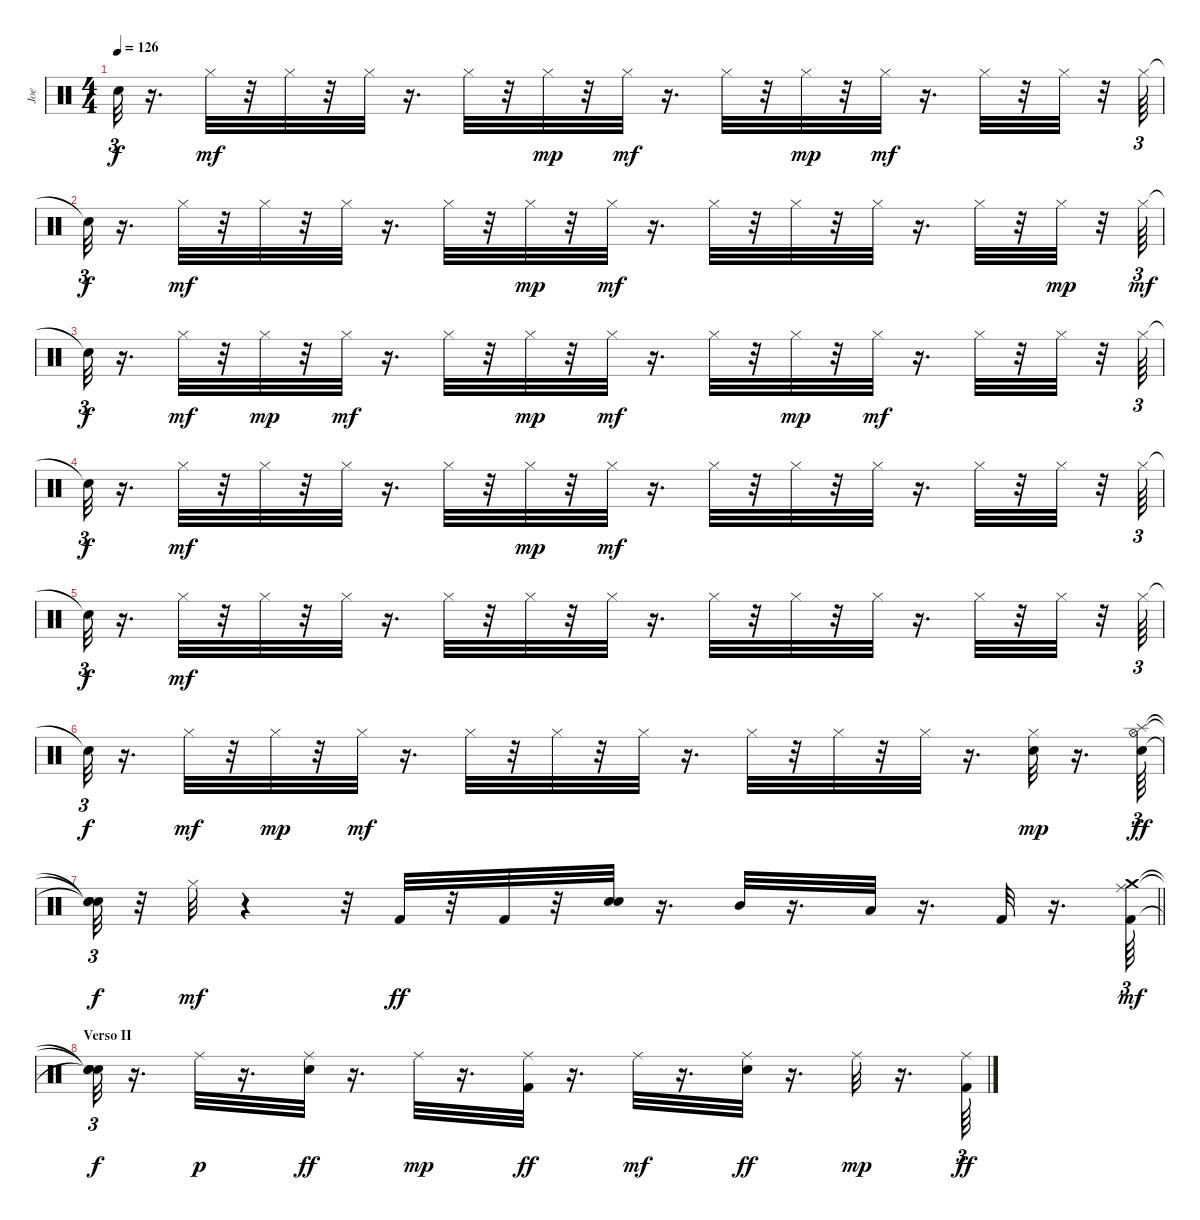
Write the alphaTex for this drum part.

\track ("Joe" "Joe") {instrument percussion}
\staff {score}
\articulation defaults
\ts (4 4)
\tempo 126
\clef neutral
\ks c "Snare (hit)"{t}.32{tu (3 2) dy f}
r.16{d} "Hi-Hat (closed)".32{dy mf} r.32 "Hi-Hat (closed)".32 r.32 "Hi-Hat (closed)".32 r.16{d} "Hi-Hat (closed)".32 r.32 "Hi-Hat (closed)".32{dy mp} r.32 "Hi-Hat (closed)".32{dy mf} r.16{d} "Hi-Hat (closed)".32 r.32 "Hi-Hat (closed)".32{dy mp} r.32 "Hi-Hat (closed)".32{dy mf} r.16{d} "Hi-Hat (closed)".32 r.32 "Hi-Hat (closed)".32 r.32 "Hi-Hat (closed)".64{tu (3 2)} |
"Snare (hit)"{t}.32{tu (3 2) dy f} r.16{d} "Hi-Hat (closed)".32{dy mf} r.32 "Hi-Hat (closed)".32 r.32 "Hi-Hat (closed)".32 r.16{d} "Hi-Hat (closed)".32 r.32 "Hi-Hat (closed)".32{dy mp} r.32 "Hi-Hat (closed)".32{dy mf} r.16{d} "Hi-Hat (closed)".32 r.32 "Hi-Hat (closed)".32 r.32 "Hi-Hat (closed)".32 r.16{d} "Hi-Hat (closed)".32 r.32 "Hi-Hat (closed)".32{dy mp} r.32 "Hi-Hat (closed)".64{tu (3 2) dy mf} |
"Snare (hit)"{t}.32{tu (3 2) dy f} r.16{d} "Hi-Hat (closed)".32{dy mf} r.32 "Hi-Hat (closed)".32{dy mp} r.32 "Hi-Hat (closed)".32{dy mf} r.16{d} "Hi-Hat (closed)".32 r.32 "Hi-Hat (closed)".32{dy mp} r.32 "Hi-Hat (closed)".32{dy mf} r.16{d} "Hi-Hat (closed)".32 r.32 "Hi-Hat (closed)".32{dy mp} r.32 "Hi-Hat (closed)".32{dy mf} r.16{d} "Hi-Hat (closed)".32 r.32 "Hi-Hat (closed)".32 r.32 "Hi-Hat (closed)".64{tu (3 2)} |
"Snare (hit)"{t}.32{tu (3 2) dy f} r.16{d} "Hi-Hat (closed)".32{dy mf} r.32 "Hi-Hat (closed)".32 r.32 "Hi-Hat (closed)".32 r.16{d} "Hi-Hat (closed)".32 r.32 "Hi-Hat (closed)".32{dy mp} r.32 "Hi-Hat (closed)".32{dy mf} r.16{d} "Hi-Hat (closed)".32 r.32 "Hi-Hat (closed)".32 r.32 "Hi-Hat (closed)".32 r.16{d} "Hi-Hat (closed)".32 r.32 "Hi-Hat (closed)".32 r.32 "Hi-Hat (closed)".64{tu (3 2)} |
"Snare (hit)"{t}.32{tu (3 2) dy f} r.16{d} "Hi-Hat (closed)".32{dy mf} r.32 "Hi-Hat (closed)".32 r.32 "Hi-Hat (closed)".32 r.16{d} "Hi-Hat (closed)".32 r.32 "Hi-Hat (closed)".32 r.32 "Hi-Hat (closed)".32 r.16{d} "Hi-Hat (closed)".32 r.32 "Hi-Hat (closed)".32 r.32 "Hi-Hat (closed)".32 r.16{d} "Hi-Hat (closed)".32 r.32 "Hi-Hat (closed)".32 r.32 "Hi-Hat (closed)".64{tu (3 2)} |
"Snare (hit)"{t}.32{tu (3 2) dy f} r.16{d} "Hi-Hat (closed)".32{dy mf} r.32 "Hi-Hat (closed)".32{dy mp} r.32 "Hi-Hat (closed)".32{dy mf} r.16{d} "Hi-Hat (closed)".32 r.32 "Hi-Hat (closed)".32 r.32 "Hi-Hat (closed)".32 r.16{d} "Hi-Hat (closed)".32 r.32 "Hi-Hat (closed)".32 r.32 "Hi-Hat (closed)".32 r.16{d} ("Hi-Hat (closed)" "Electric Snare (hit)").32{dy mp} r.16{d} ("Hi-Hat (open)" "Electric Snare (hit)" "Splash (hit)").64{tu (3 2) dy ff} |
\barLineRight lightlight
("Snare (hit)"{t} "Snare (hit)"{t} "Snare (hit)"{t}).32{tu (3 2) dy f} r.32 "Hi-Hat (closed)".32{dy mf} r.4 r.32 "Kick (hit) 2".32{dy ff} r.32 "Kick (hit) 2".32 r.32 ("Electric Snare (hit)" "Electric Snare (hit)").32 r.16{d} "Mid Tom (hit)".32 r.16{d} "Low Tom (hit)".32 r.16{d} "Kick (hit) 2".32 r.16{d} ("Kick (hit) 2" "Ride (middle)" "Crash medium (hit)").64{tu (3 2) dy mf} |
\section ("" "Verso II")
("Snare (hit)"{t} "Snare (hit)"{t} "Snare (hit)"{t}).32{tu (3 2) dy f} r.16{d} "Ride (middle)".32{dy p} r.16{d} ("Electric Snare (hit)" "Ride (middle)").32{dy ff} r.16{d} "Ride (middle)".32{dy mp} r.16{d} ("Kick (hit) 2" "Ride (middle)").32{dy ff} r.16{d} "Ride (middle)".32{dy mf} r.16{d} ("Electric Snare (hit)" "Ride (middle)").32{dy ff} r.16{d} "Ride (middle)".32{dy mp} r.16{d} ("Kick (hit) 2" "Ride (middle)").64{tu (3 2) dy ff}
